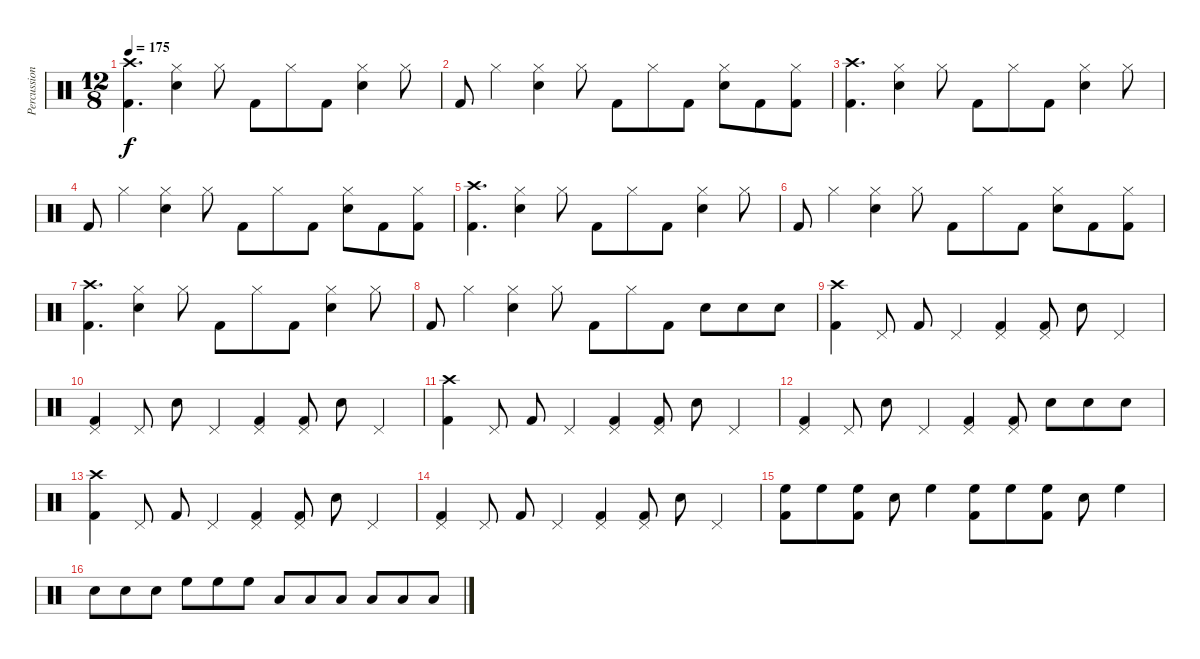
\track ("Percussion" "Percussion") {instrument percussion}
\staff {score}
\articulation defaults
\ts (12 8)
\tempo 175
\clef neutral
\ks c
("Kick (hit) 2" "Crash high (hit)").4{d dy f} ("Snare (hit) 2" "Hi-Hat (closed)").4 "Hi-Hat (closed)".8 "Kick (hit) 2".8 "Hi-Hat (closed)".8 "Kick (hit) 2".8 ("Snare (hit) 2" "Hi-Hat (closed)").4 "Hi-Hat (closed)".8 |
"Kick (hit) 2".8 "Hi-Hat (closed)".4 ("Snare (hit) 2" "Hi-Hat (closed)").4 "Hi-Hat (closed)".8 "Kick (hit) 2".8 "Hi-Hat (closed)".8 "Kick (hit) 2".8 ("Snare (hit) 2" "Hi-Hat (closed)").8 "Kick (hit) 2".8 ("Kick (hit) 2" "Hi-Hat (closed)").8 |
("Kick (hit) 2" "Crash high (hit)").4{d} ("Snare (hit) 2" "Hi-Hat (closed)").4 "Hi-Hat (closed)".8 "Kick (hit) 2".8 "Hi-Hat (closed)".8 "Kick (hit) 2".8 ("Snare (hit) 2" "Hi-Hat (closed)").4 "Hi-Hat (closed)".8 |
"Kick (hit) 2".8 "Hi-Hat (closed)".4 ("Snare (hit) 2" "Hi-Hat (closed)").4 "Hi-Hat (closed)".8 "Kick (hit) 2".8 "Hi-Hat (closed)".8 "Kick (hit) 2".8 ("Snare (hit) 2" "Hi-Hat (closed)").8 "Kick (hit) 2".8 ("Kick (hit) 2" "Hi-Hat (closed)").8 |
("Kick (hit) 2" "Crash high (hit)").4{d} ("Snare (hit) 2" "Hi-Hat (closed)").4 "Hi-Hat (closed)".8 "Kick (hit) 2".8 "Hi-Hat (closed)".8 "Kick (hit) 2".8 ("Snare (hit) 2" "Hi-Hat (closed)").4 "Hi-Hat (closed)".8 |
"Kick (hit) 2".8 "Hi-Hat (closed)".4 ("Snare (hit) 2" "Hi-Hat (closed)").4 "Hi-Hat (closed)".8 "Kick (hit) 2".8 "Hi-Hat (closed)".8 "Kick (hit) 2".8 ("Snare (hit) 2" "Hi-Hat (closed)").8 "Kick (hit) 2".8 ("Kick (hit) 2" "Hi-Hat (closed)").8 |
("Kick (hit) 2" "Crash high (hit)").4{d} ("Snare (hit) 2" "Hi-Hat (closed)").4 "Hi-Hat (closed)".8 "Kick (hit) 2".8 "Hi-Hat (closed)".8 "Kick (hit) 2".8 ("Snare (hit) 2" "Hi-Hat (closed)").4 "Hi-Hat (closed)".8 |
"Kick (hit) 2".8 "Hi-Hat (closed)".4 ("Snare (hit) 2" "Hi-Hat (closed)").4 "Hi-Hat (closed)".8 "Kick (hit) 2".8 "Hi-Hat (closed)".8 "Kick (hit) 2".8 "Snare (hit) 2".8 "Snare (hit) 2".8 "Snare (hit) 2".8 |
("Kick (hit) 2" "Crash high (hit)").4 "Pedal Hi-Hat (hit)".8 "Kick (hit) 2".8 "Pedal Hi-Hat (hit)".4 ("Kick (hit) 2" "Pedal Hi-Hat (hit)").4 ("Kick (hit) 2" "Pedal Hi-Hat (hit)").8 "Snare (hit) 2".8 "Pedal Hi-Hat (hit)".4 |
("Kick (hit) 2" "Pedal Hi-Hat (hit)").4 "Pedal Hi-Hat (hit)".8 "Snare (hit) 2".8 "Pedal Hi-Hat (hit)".4 ("Kick (hit) 2" "Pedal Hi-Hat (hit)").4 ("Kick (hit) 2" "Pedal Hi-Hat (hit)").8 "Snare (hit) 2".8 "Pedal Hi-Hat (hit)".4 |
("Kick (hit) 2" "Crash high (hit)").4 "Pedal Hi-Hat (hit)".8 "Kick (hit) 2".8 "Pedal Hi-Hat (hit)".4 ("Kick (hit) 2" "Pedal Hi-Hat (hit)").4 ("Kick (hit) 2" "Pedal Hi-Hat (hit)").8 "Snare (hit) 2".8 "Pedal Hi-Hat (hit)".4 |
("Kick (hit) 2" "Pedal Hi-Hat (hit)").4 "Pedal Hi-Hat (hit)".8 "Snare (hit) 2".8 "Pedal Hi-Hat (hit)".4 ("Kick (hit) 2" "Pedal Hi-Hat (hit)").4 ("Kick (hit) 2" "Pedal Hi-Hat (hit)").8 "Snare (hit) 2".8 "Snare (hit) 2".8 "Snare (hit) 2".8 |
("Kick (hit) 2" "Crash high (hit)").4 "Pedal Hi-Hat (hit)".8 "Kick (hit) 2".8 "Pedal Hi-Hat (hit)".4 ("Kick (hit) 2" "Pedal Hi-Hat (hit)").4 ("Kick (hit) 2" "Pedal Hi-Hat (hit)").8 "Snare (hit) 2".8 "Pedal Hi-Hat (hit)".4 |
("Kick (hit) 2" "Pedal Hi-Hat (hit)").4 "Pedal Hi-Hat (hit)".8 "Kick (hit) 2".8 "Pedal Hi-Hat (hit)".4 ("Kick (hit) 2" "Pedal Hi-Hat (hit)").4 ("Kick (hit) 2" "Pedal Hi-Hat (hit)").8 "Snare (hit) 2".8 "Pedal Hi-Hat (hit)".4 |
("Kick (hit) 2" "High Floor Tom (hit)").8 "High Floor Tom (hit)".8 ("Kick (hit) 2" "High Floor Tom (hit)").8 "Snare (hit) 2".8 "High Floor Tom (hit)".4 ("Kick (hit) 2" "High Floor Tom (hit)").8 "High Floor Tom (hit)".8 ("Kick (hit) 2" "High Floor Tom (hit)").8 "Snare (hit) 2".8 "High Floor Tom (hit)".4 |
"Snare (hit) 2".8 "Snare (hit) 2".8 "Snare (hit) 2".8 "High Floor Tom (hit)".8 "High Floor Tom (hit)".8 "High Floor Tom (hit)".8 "Low Tom (hit)".8 "Low Tom (hit)".8 "Low Tom (hit)".8 "Low Floor Tom (hit)".8 "Low Floor Tom (hit)".8 "Low Floor Tom (hit)".8
